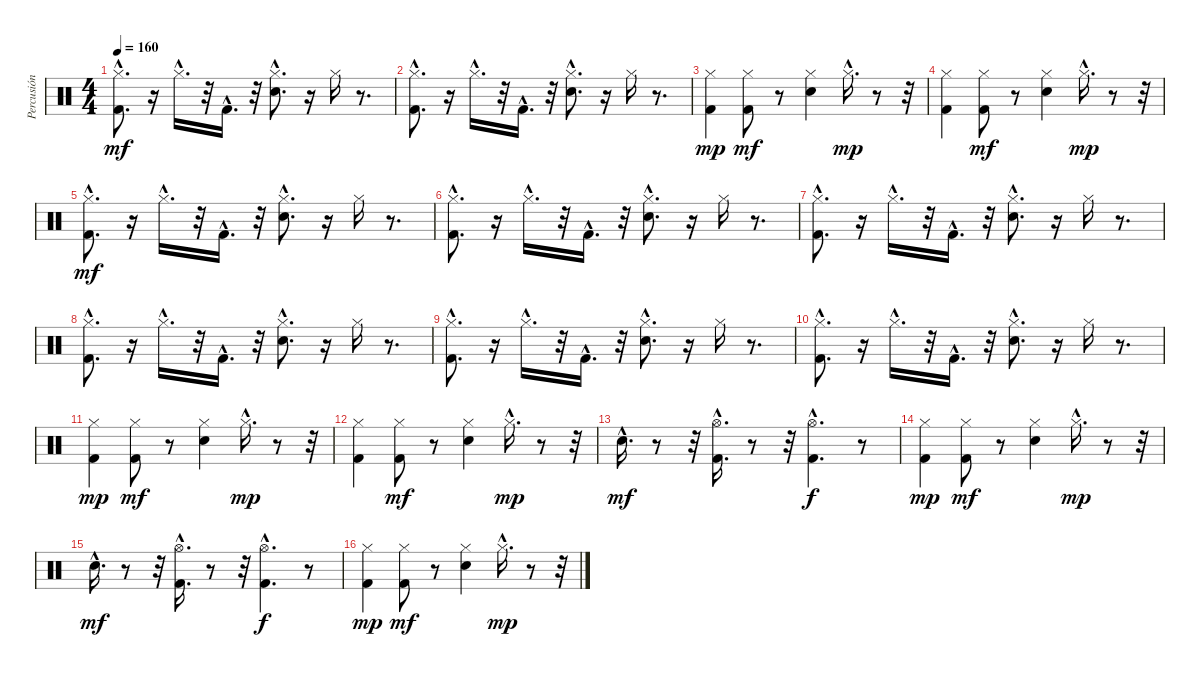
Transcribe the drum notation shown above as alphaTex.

\track ("Percusión" "Percusión") {instrument percussion}
\staff {score}
\articulation defaults
\ts (4 4)
\tempo 160
\clef neutral
\ks c
("Hi-Hat (closed)"{hac} "Kick (hit) 2"{hac}).8{d dy mf} r.16 "Hi-Hat (closed)"{hac}.16{d} r.32 "Kick (hit) 2"{hac}.16{d} r.32 ("Hi-Hat (closed)"{hac} "Electric Snare (hit)"{hac}).8{d} r.16 "Hi-Hat (closed)".16 r.8{d} |
("Hi-Hat (closed)"{hac} "Kick (hit) 2"{hac}).8{d} r.16 "Hi-Hat (closed)"{hac}.16{d} r.32 "Kick (hit) 2"{hac}.16{d} r.32 ("Hi-Hat (closed)"{hac} "Electric Snare (hit)"{hac}).8{d} r.16 "Hi-Hat (closed)".16 r.8{d} |
("Hi-Hat (closed)" "Kick (hit) 2").4{dy mp} ("Hi-Hat (closed)" "Kick (hit) 2").8{dy mf} r.8 ("Hi-Hat (closed)" "Electric Snare (hit)").4 "Hi-Hat (closed)"{hac}.16{d dy mp} r.8 r.32 |
("Hi-Hat (closed)" "Kick (hit) 2").4 ("Hi-Hat (closed)" "Kick (hit) 2").8{dy mf} r.8 ("Hi-Hat (closed)" "Electric Snare (hit)").4 "Hi-Hat (closed)"{hac}.16{d dy mp} r.8 r.32 |
("Hi-Hat (closed)"{hac} "Kick (hit) 2"{hac}).8{d dy mf} r.16 "Hi-Hat (closed)"{hac}.16{d} r.32 "Kick (hit) 2"{hac}.16{d} r.32 ("Hi-Hat (closed)"{hac} "Electric Snare (hit)"{hac}).8{d} r.16 "Hi-Hat (closed)".16 r.8{d} |
("Hi-Hat (closed)"{hac} "Kick (hit) 2"{hac}).8{d} r.16 "Hi-Hat (closed)"{hac}.16{d} r.32 "Kick (hit) 2"{hac}.16{d} r.32 ("Hi-Hat (closed)"{hac} "Electric Snare (hit)"{hac}).8{d} r.16 "Hi-Hat (closed)".16 r.8{d} |
("Hi-Hat (closed)"{hac} "Kick (hit) 2"{hac}).8{d} r.16 "Hi-Hat (closed)"{hac}.16{d} r.32 "Kick (hit) 2"{hac}.16{d} r.32 ("Hi-Hat (closed)"{hac} "Electric Snare (hit)"{hac}).8{d} r.16 "Hi-Hat (closed)".16 r.8{d} |
("Hi-Hat (closed)"{hac} "Kick (hit) 2"{hac}).8{d} r.16 "Hi-Hat (closed)"{hac}.16{d} r.32 "Kick (hit) 2"{hac}.16{d} r.32 ("Hi-Hat (closed)"{hac} "Electric Snare (hit)"{hac}).8{d} r.16 "Hi-Hat (closed)".16 r.8{d} |
("Hi-Hat (closed)"{hac} "Kick (hit) 2"{hac}).8{d} r.16 "Hi-Hat (closed)"{hac}.16{d} r.32 "Kick (hit) 2"{hac}.16{d} r.32 ("Hi-Hat (closed)"{hac} "Electric Snare (hit)"{hac}).8{d} r.16 "Hi-Hat (closed)".16 r.8{d} |
("Hi-Hat (closed)"{hac} "Kick (hit) 2"{hac}).8{d} r.16 "Hi-Hat (closed)"{hac}.16{d} r.32 "Kick (hit) 2"{hac}.16{d} r.32 ("Hi-Hat (closed)"{hac} "Electric Snare (hit)"{hac}).8{d} r.16 "Hi-Hat (closed)".16 r.8{d} |
("Hi-Hat (closed)" "Kick (hit) 2").4{dy mp} ("Hi-Hat (closed)" "Kick (hit) 2").8{dy mf} r.8 ("Hi-Hat (closed)" "Electric Snare (hit)").4 "Hi-Hat (closed)"{hac}.16{d dy mp} r.8 r.32 |
("Hi-Hat (closed)" "Kick (hit) 2").4 ("Hi-Hat (closed)" "Kick (hit) 2").8{dy mf} r.8 ("Hi-Hat (closed)" "Electric Snare (hit)").4 "Hi-Hat (closed)"{hac}.16{d dy mp} r.8 r.32 |
"Electric Snare (hit)"{hac}.16{d dy mf} r.8 r.32 ("Kick (hit) 2"{hac} "Hi-Hat (open)").16{d} r.8 r.32 ("Kick (hit) 2"{hac} "Hi-Hat (open)"{hac}).4{d dy f} r.8 |
("Hi-Hat (closed)" "Kick (hit) 2").4{dy mp} ("Hi-Hat (closed)" "Kick (hit) 2").8{dy mf} r.8 ("Hi-Hat (closed)" "Electric Snare (hit)").4 "Hi-Hat (closed)"{hac}.16{d dy mp} r.8 r.32 |
"Electric Snare (hit)"{hac}.16{d dy mf} r.8 r.32 ("Kick (hit) 2"{hac} "Hi-Hat (open)").16{d} r.8 r.32 ("Kick (hit) 2"{hac} "Hi-Hat (open)"{hac}).4{d dy f} r.8 |
("Hi-Hat (closed)" "Kick (hit) 2").4{dy mp} ("Hi-Hat (closed)" "Kick (hit) 2").8{dy mf} r.8 ("Hi-Hat (closed)" "Electric Snare (hit)").4 "Hi-Hat (closed)"{hac}.16{d dy mp} r.8 r.32
